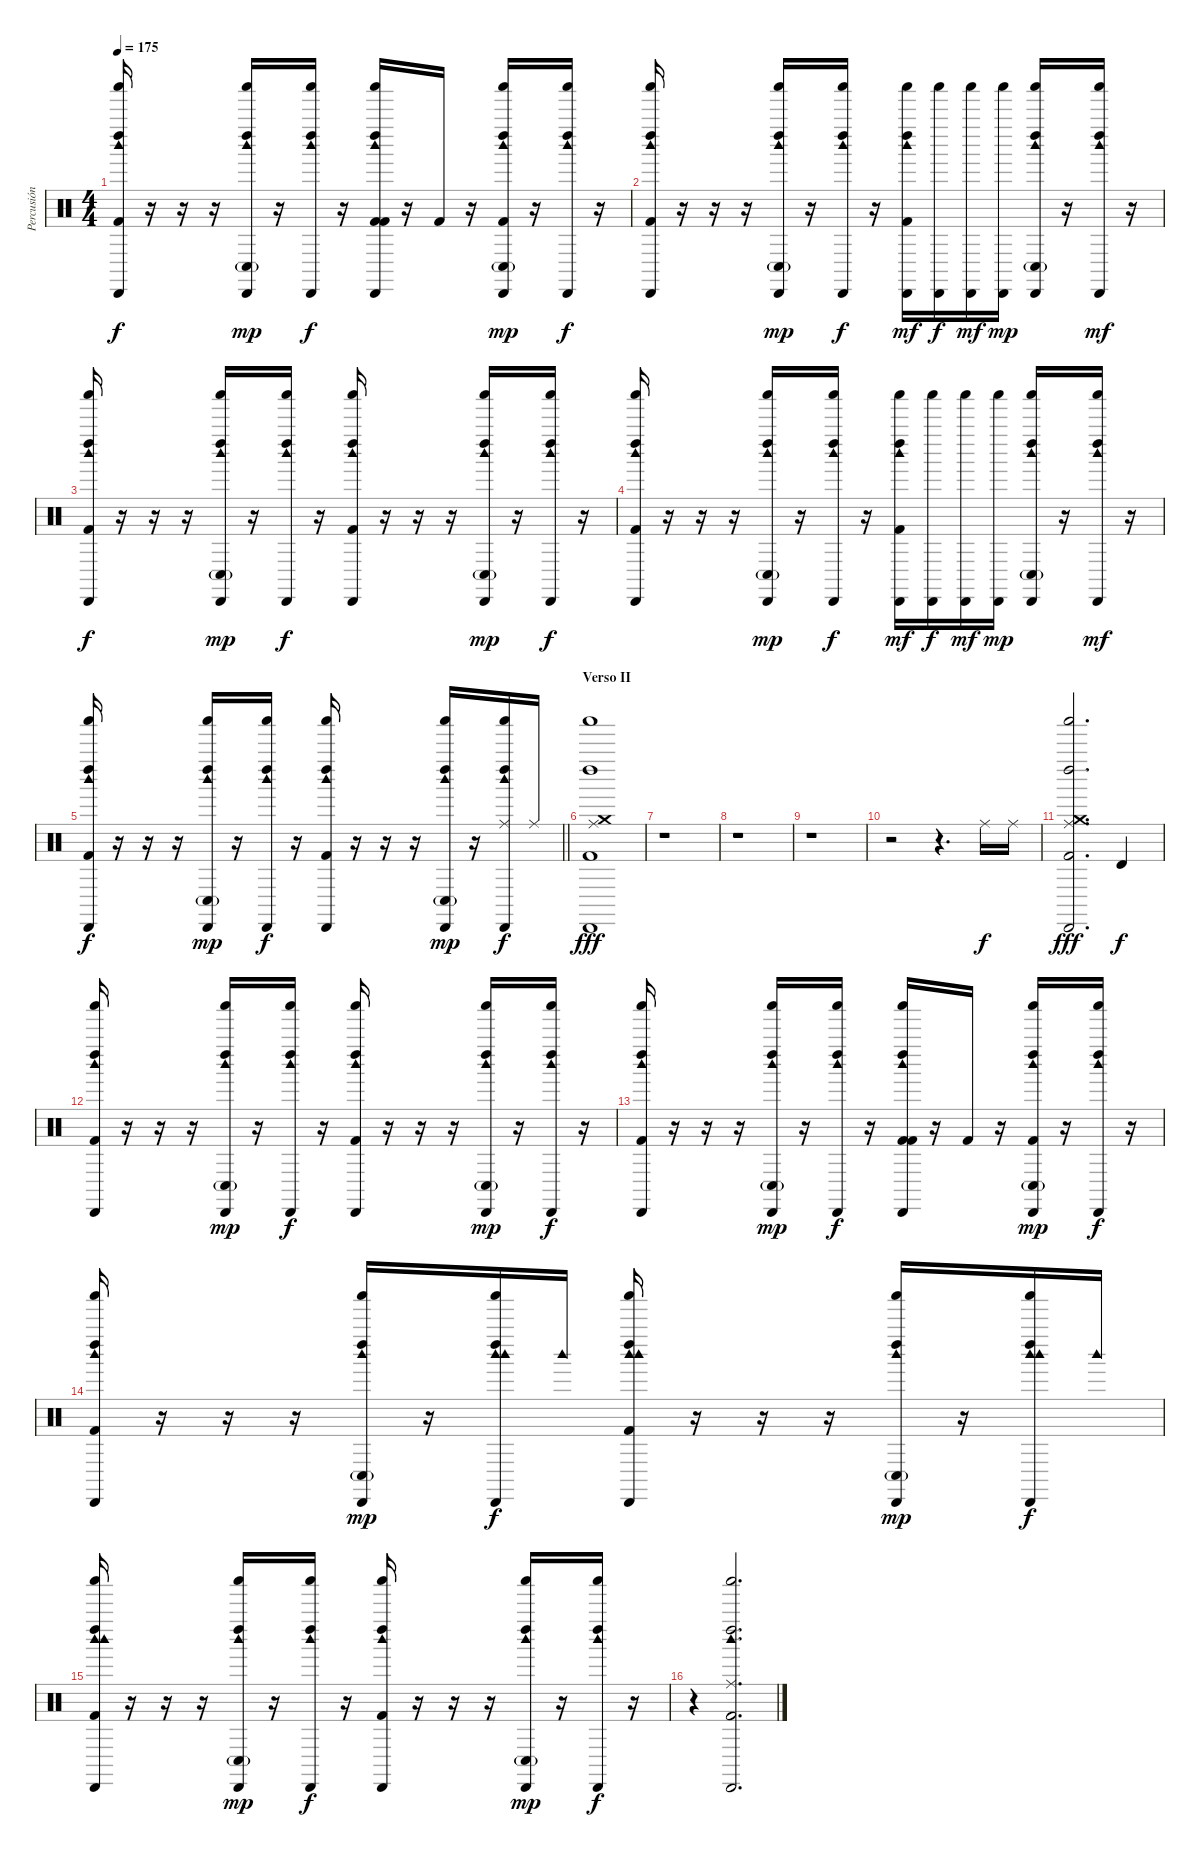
\track ("Percusión" "Percusión") {instrument percussion}
\staff {score}
\articulation defaults
\ts (4 4)
\tempo 175
\clef neutral
\ks c
("Cabasa (hit)" "Shaker (hit)" "Kick (hit) 2" "Left Maraca (hit)" "Woodblock high (hit)").16{dy f} r.16 r.16 r.16 ("Cabasa (hit)" "Shaker (hit)" "Conga low (hit)"{g} "Left Maraca (hit)" "Woodblock high (hit)").16{dy mp} r.16 ("Cabasa (hit)" "Shaker (hit)" "Left Maraca (hit)" "Woodblock high (hit)").16{dy f} r.16 ("Kick (hit) 2" "Cabasa (hit)" "Shaker (hit)" "Kick (hit) 2" "Left Maraca (hit)" "Woodblock high (hit)").16 r.16 "Kick (hit) 2".16 r.16 ("Kick (hit) 2" "Cabasa (hit)" "Shaker (hit)" "Conga low (hit)"{g} "Left Maraca (hit)" "Woodblock high (hit)").16{dy mp} r.16 ("Cabasa (hit)" "Shaker (hit)" "Left Maraca (hit)" "Woodblock high (hit)").16{dy f} r.16 |
("Cabasa (hit)" "Shaker (hit)" "Kick (hit) 2" "Left Maraca (hit)" "Woodblock high (hit)").16 r.16 r.16 r.16 ("Cabasa (hit)" "Shaker (hit)" "Conga low (hit)"{g} "Left Maraca (hit)" "Woodblock high (hit)").16{dy mp} r.16 ("Cabasa (hit)" "Shaker (hit)" "Left Maraca (hit)" "Woodblock high (hit)").16{dy f} r.16 ("Cabasa (hit)" "Shaker (hit)" "Left Maraca (hit)" "Woodblock high (hit)" "Kick (hit) 2").16{dy mf} ("Cabasa (hit)" "Shaker (hit)").16{dy f} ("Cabasa (hit)" "Shaker (hit)").16{dy mf} ("Cabasa (hit)" "Shaker (hit)").16{dy mp} ("Cabasa (hit)" "Shaker (hit)" "Left Maraca (hit)" "Woodblock high (hit)" "Conga low (hit)"{g}).16 r.16 ("Cabasa (hit)" "Shaker (hit)" "Left Maraca (hit)" "Woodblock high (hit)").16{dy mf} r.16 |
("Cabasa (hit)" "Shaker (hit)" "Kick (hit) 2" "Left Maraca (hit)" "Woodblock high (hit)").16{dy f} r.16 r.16 r.16 ("Cabasa (hit)" "Shaker (hit)" "Conga low (hit)"{g} "Left Maraca (hit)" "Woodblock high (hit)").16{dy mp} r.16 ("Cabasa (hit)" "Shaker (hit)" "Left Maraca (hit)" "Woodblock high (hit)").16{dy f} r.16 ("Cabasa (hit)" "Shaker (hit)" "Kick (hit) 2" "Left Maraca (hit)" "Woodblock high (hit)").16 r.16 r.16 r.16 ("Cabasa (hit)" "Shaker (hit)" "Conga low (hit)"{g} "Left Maraca (hit)" "Woodblock high (hit)").16{dy mp} r.16 ("Cabasa (hit)" "Shaker (hit)" "Left Maraca (hit)" "Woodblock high (hit)").16{dy f} r.16 |
("Cabasa (hit)" "Shaker (hit)" "Kick (hit) 2" "Left Maraca (hit)" "Woodblock high (hit)").16 r.16 r.16 r.16 ("Cabasa (hit)" "Shaker (hit)" "Conga low (hit)"{g} "Left Maraca (hit)" "Woodblock high (hit)").16{dy mp} r.16 ("Cabasa (hit)" "Shaker (hit)" "Left Maraca (hit)" "Woodblock high (hit)").16{dy f} r.16 ("Cabasa (hit)" "Shaker (hit)" "Left Maraca (hit)" "Woodblock high (hit)" "Kick (hit) 2").16{dy mf} ("Cabasa (hit)" "Shaker (hit)").16{dy f} ("Cabasa (hit)" "Shaker (hit)").16{dy mf} ("Cabasa (hit)" "Shaker (hit)").16{dy mp} ("Cabasa (hit)" "Shaker (hit)" "Left Maraca (hit)" "Woodblock high (hit)" "Conga low (hit)"{g}).16 r.16 ("Cabasa (hit)" "Shaker (hit)" "Left Maraca (hit)" "Woodblock high (hit)").16{dy mf} r.16 |
\barLineRight lightlight
("Cabasa (hit)" "Shaker (hit)" "Kick (hit) 2" "Left Maraca (hit)" "Woodblock high (hit)").16{dy f} r.16 r.16 r.16 ("Cabasa (hit)" "Shaker (hit)" "Conga low (hit)"{g} "Left Maraca (hit)" "Woodblock high (hit)").16{dy mp} r.16 ("Cabasa (hit)" "Shaker (hit)" "Left Maraca (hit)" "Woodblock high (hit)").16{dy f} r.16 ("Cabasa (hit)" "Shaker (hit)" "Kick (hit) 2" "Left Maraca (hit)" "Woodblock high (hit)").16 r.16 r.16 r.16 ("Cabasa (hit)" "Shaker (hit)" "Conga low (hit)"{g} "Left Maraca (hit)" "Woodblock high (hit)").16{dy mp} r.16 ("Ride (middle)" "Cabasa (hit)" "Shaker (hit)" "Left Maraca (hit)" "Woodblock high (hit)").16{dy f} "Ride (middle)".16 |
\section ("" "Verso II")
("Cabasa (hit)" "Left Maraca (hit)" "Crash medium (hit)" "Shaker (hit)" "Ride (middle)" "Kick (hit) 2").1{dy fff} |
r.1 |
r.1 |
r.1 |
r.2 r.4{d} "Ride (middle)".16{dy f} "Ride (middle)".16 |
("Cabasa (hit)" "Left Maraca (hit)" "Crash medium (hit)" "Shaker (hit)" "Ride (middle)" "Kick (hit) 2").2{d dy fff} "Timbale high (hit)".4{dy f} |
("Cabasa (hit)" "Shaker (hit)" "Kick (hit) 2" "Left Maraca (hit)" "Woodblock high (hit)").16 r.16 r.16 r.16 ("Cabasa (hit)" "Shaker (hit)" "Conga low (hit)"{g} "Left Maraca (hit)" "Woodblock high (hit)").16{dy mp} r.16 ("Cabasa (hit)" "Shaker (hit)" "Left Maraca (hit)" "Woodblock high (hit)").16{dy f} r.16 ("Cabasa (hit)" "Shaker (hit)" "Kick (hit) 2" "Left Maraca (hit)" "Woodblock high (hit)").16 r.16 r.16 r.16 ("Cabasa (hit)" "Shaker (hit)" "Conga low (hit)"{g} "Left Maraca (hit)" "Woodblock high (hit)").16{dy mp} r.16 ("Cabasa (hit)" "Shaker (hit)" "Left Maraca (hit)" "Woodblock high (hit)").16{dy f} r.16 |
("Cabasa (hit)" "Shaker (hit)" "Kick (hit) 2" "Left Maraca (hit)" "Woodblock high (hit)").16 r.16 r.16 r.16 ("Cabasa (hit)" "Shaker (hit)" "Conga low (hit)"{g} "Left Maraca (hit)" "Woodblock high (hit)").16{dy mp} r.16 ("Cabasa (hit)" "Shaker (hit)" "Left Maraca (hit)" "Woodblock high (hit)").16{dy f} r.16 ("Kick (hit) 2" "Cabasa (hit)" "Shaker (hit)" "Kick (hit) 2" "Left Maraca (hit)" "Woodblock high (hit)").16 r.16 "Kick (hit) 2".16 r.16 ("Kick (hit) 2" "Cabasa (hit)" "Shaker (hit)" "Conga low (hit)"{g} "Left Maraca (hit)" "Woodblock high (hit)").16{dy mp} r.16 ("Cabasa (hit)" "Shaker (hit)" "Left Maraca (hit)" "Woodblock high (hit)").16{dy f} r.16 |
("Cabasa (hit)" "Shaker (hit)" "Kick (hit) 2" "Left Maraca (hit)" "Woodblock high (hit)").16 r.16 r.16 r.16 ("Cabasa (hit)" "Shaker (hit)" "Conga low (hit)"{g} "Left Maraca (hit)" "Woodblock high (hit)").16{dy mp} r.16 ("Woodblock high (hit)" "Cabasa (hit)" "Shaker (hit)" "Left Maraca (hit)" "Woodblock high (hit)").16{dy f} "Woodblock high (hit)".16 ("Woodblock high (hit)" "Cabasa (hit)" "Shaker (hit)" "Kick (hit) 2" "Left Maraca (hit)" "Woodblock high (hit)").16 r.16 r.16 r.16 ("Cabasa (hit)" "Shaker (hit)" "Conga low (hit)"{g} "Left Maraca (hit)" "Woodblock high (hit)").16{dy mp} r.16 ("Woodblock high (hit)" "Cabasa (hit)" "Shaker (hit)" "Left Maraca (hit)" "Woodblock high (hit)").16{dy f} "Woodblock high (hit)".16 |
("Woodblock high (hit)" "Cabasa (hit)" "Shaker (hit)" "Kick (hit) 2" "Left Maraca (hit)" "Woodblock high (hit)").16 r.16 r.16 r.16 ("Cabasa (hit)" "Shaker (hit)" "Conga low (hit)"{g} "Left Maraca (hit)" "Woodblock high (hit)").16{dy mp} r.16 ("Cabasa (hit)" "Shaker (hit)" "Left Maraca (hit)" "Woodblock high (hit)").16{dy f} r.16 ("Cabasa (hit)" "Shaker (hit)" "Kick (hit) 2" "Left Maraca (hit)" "Woodblock high (hit)").16 r.16 r.16 r.16 ("Cabasa (hit)" "Shaker (hit)" "Conga low (hit)"{g} "Left Maraca (hit)" "Woodblock high (hit)").16{dy mp} r.16 ("Cabasa (hit)" "Shaker (hit)" "Left Maraca (hit)" "Woodblock high (hit)").16{dy f} r.16 |
r.4 ("Ride (middle)" "Cabasa (hit)" "Shaker (hit)" "Kick (hit) 2" "Left Maraca (hit)" "Woodblock high (hit)").2{d}
